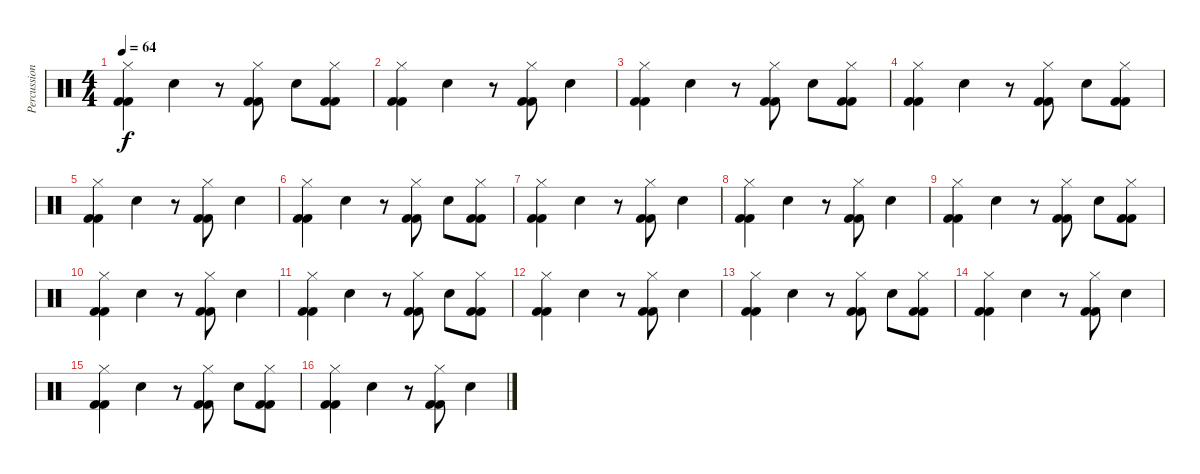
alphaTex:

\track ("Percussions" "Percussion") {instrument percussion}
\staff {score}
\articulation defaults
\ts (4 4)
\tempo 64
\clef neutral
\ks c
("Kick (hit) 2" "Hi-Hat (closed)" "Kick (hit) 2").4{dy f} "Hand Clap (hit)".4 r.8 ("Kick (hit) 2" "Hi-Hat (closed)" "Kick (hit) 2").8 "Hand Clap (hit)".8 ("Kick (hit) 2" "Hi-Hat (closed)" "Kick (hit) 2").8 |
("Kick (hit) 2" "Hi-Hat (closed)" "Kick (hit) 2").4 "Hand Clap (hit)".4 r.8 ("Kick (hit) 2" "Hi-Hat (closed)" "Kick (hit) 2").8 "Hand Clap (hit)".4 |
("Kick (hit) 2" "Hi-Hat (closed)" "Kick (hit) 2").4 "Hand Clap (hit)".4 r.8 ("Kick (hit) 2" "Hi-Hat (closed)" "Kick (hit) 2").8 "Hand Clap (hit)".8 ("Kick (hit) 2" "Hi-Hat (closed)" "Kick (hit) 2").8 |
("Kick (hit) 2" "Hi-Hat (closed)" "Kick (hit) 2").4 "Hand Clap (hit)".4 r.8 ("Kick (hit) 2" "Hi-Hat (closed)" "Kick (hit) 2").8 "Hand Clap (hit)".8 ("Kick (hit) 2" "Hi-Hat (closed)" "Kick (hit) 2").8 |
("Kick (hit) 2" "Hi-Hat (closed)" "Kick (hit) 2").4 "Hand Clap (hit)".4 r.8 ("Kick (hit) 2" "Hi-Hat (closed)" "Kick (hit) 2").8 "Hand Clap (hit)".4 |
("Kick (hit) 2" "Hi-Hat (closed)" "Kick (hit) 2").4 "Hand Clap (hit)".4 r.8 ("Kick (hit) 2" "Hi-Hat (closed)" "Kick (hit) 2").8 "Hand Clap (hit)".8 ("Kick (hit) 2" "Hi-Hat (closed)" "Kick (hit) 2").8 |
("Kick (hit) 2" "Hi-Hat (closed)" "Kick (hit) 2").4 "Hand Clap (hit)".4 r.8 ("Kick (hit) 2" "Hi-Hat (closed)" "Kick (hit) 2").8 "Hand Clap (hit)".4 |
("Kick (hit) 2" "Hi-Hat (closed)" "Kick (hit) 2").4 "Hand Clap (hit)".4 r.8 ("Kick (hit) 2" "Hi-Hat (closed)" "Kick (hit) 2").8 "Hand Clap (hit)".4 |
("Kick (hit) 2" "Hi-Hat (closed)" "Kick (hit) 2").4 "Hand Clap (hit)".4 r.8 ("Kick (hit) 2" "Hi-Hat (closed)" "Kick (hit) 2").8 "Hand Clap (hit)".8 ("Kick (hit) 2" "Hi-Hat (closed)" "Kick (hit) 2").8 |
("Kick (hit) 2" "Hi-Hat (closed)" "Kick (hit) 2").4 "Hand Clap (hit)".4 r.8 ("Kick (hit) 2" "Hi-Hat (closed)" "Kick (hit) 2").8 "Hand Clap (hit)".4 |
("Kick (hit) 2" "Hi-Hat (closed)" "Kick (hit) 2").4 "Hand Clap (hit)".4 r.8 ("Kick (hit) 2" "Hi-Hat (closed)" "Kick (hit) 2").8 "Hand Clap (hit)".8 ("Kick (hit) 2" "Hi-Hat (closed)" "Kick (hit) 2").8 |
("Kick (hit) 2" "Hi-Hat (closed)" "Kick (hit) 2").4 "Hand Clap (hit)".4 r.8 ("Kick (hit) 2" "Hi-Hat (closed)" "Kick (hit) 2").8 "Hand Clap (hit)".4 |
("Kick (hit) 2" "Hi-Hat (closed)" "Kick (hit) 2").4 "Hand Clap (hit)".4 r.8 ("Kick (hit) 2" "Hi-Hat (closed)" "Kick (hit) 2").8 "Hand Clap (hit)".8 ("Kick (hit) 2" "Hi-Hat (closed)" "Kick (hit) 2").8 |
("Kick (hit) 2" "Hi-Hat (closed)" "Kick (hit) 2").4 "Hand Clap (hit)".4 r.8 ("Kick (hit) 2" "Hi-Hat (closed)" "Kick (hit) 2").8 "Hand Clap (hit)".4 |
("Kick (hit) 2" "Hi-Hat (closed)" "Kick (hit) 2").4 "Hand Clap (hit)".4 r.8 ("Kick (hit) 2" "Hi-Hat (closed)" "Kick (hit) 2").8 "Hand Clap (hit)".8 ("Kick (hit) 2" "Hi-Hat (closed)" "Kick (hit) 2").8 |
("Kick (hit) 2" "Hi-Hat (closed)" "Kick (hit) 2").4 "Hand Clap (hit)".4 r.8 ("Kick (hit) 2" "Hi-Hat (closed)" "Kick (hit) 2").8 "Hand Clap (hit)".4
